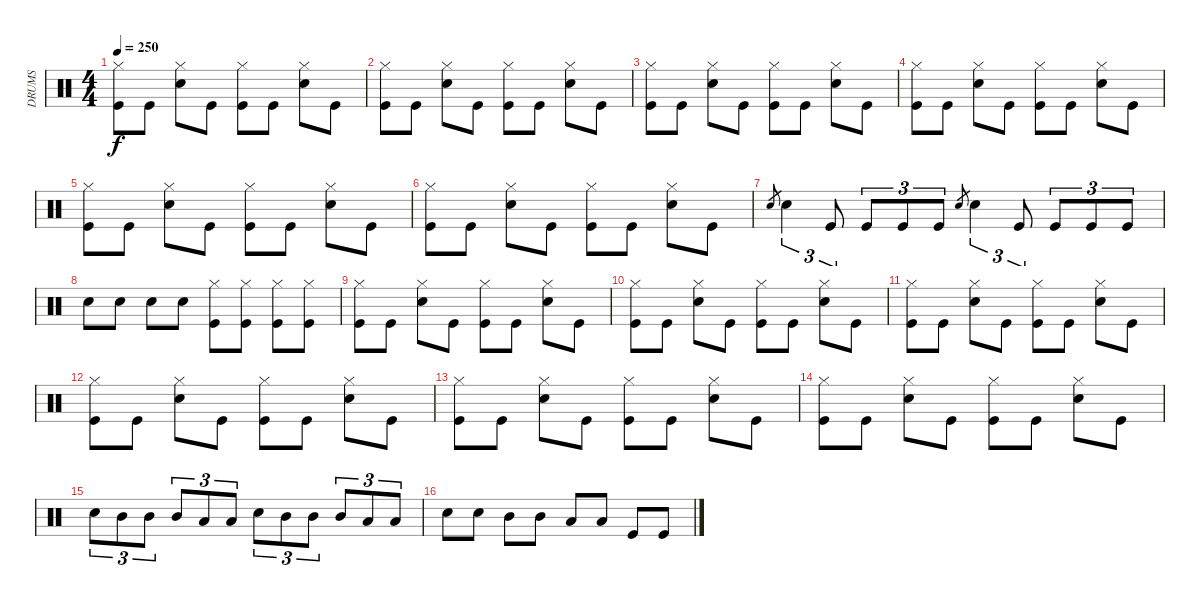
\track ("DRUMS" "DRUMS") {instrument percussion}
\staff {score}
\articulation defaults
\ts (4 4)
\tempo 250
\clef neutral
\ks aminor
("Hi-Hat (closed)" "Kick (hit)").8{dy f} "Kick (hit)".8 ("Hi-Hat (closed)" "Snare (hit) 2").8 "Kick (hit)".8 ("Hi-Hat (closed)" "Kick (hit)").8 "Kick (hit)".8 ("Hi-Hat (closed)" "Snare (hit) 2").8 "Kick (hit)".8 |
("Hi-Hat (closed)" "Kick (hit)").8 "Kick (hit)".8 ("Hi-Hat (closed)" "Snare (hit) 2").8 "Kick (hit)".8 ("Hi-Hat (closed)" "Kick (hit)").8 "Kick (hit)".8 ("Hi-Hat (closed)" "Snare (hit) 2").8 "Kick (hit)".8 |
("Hi-Hat (closed)" "Kick (hit)").8 "Kick (hit)".8 ("Hi-Hat (closed)" "Snare (hit) 2").8 "Kick (hit)".8 ("Hi-Hat (closed)" "Kick (hit)").8 "Kick (hit)".8 ("Hi-Hat (closed)" "Snare (hit) 2").8 "Kick (hit)".8 |
("Hi-Hat (closed)" "Kick (hit)").8 "Kick (hit)".8 ("Hi-Hat (closed)" "Snare (hit) 2").8 "Kick (hit)".8 ("Hi-Hat (closed)" "Kick (hit)").8 "Kick (hit)".8 ("Hi-Hat (closed)" "Snare (hit) 2").8 "Kick (hit)".8 |
("Hi-Hat (closed)" "Kick (hit)").8 "Kick (hit)".8 ("Hi-Hat (closed)" "Snare (hit) 2").8 "Kick (hit)".8 ("Hi-Hat (closed)" "Kick (hit)").8 "Kick (hit)".8 ("Hi-Hat (closed)" "Snare (hit) 2").8 "Kick (hit)".8 |
("Hi-Hat (closed)" "Kick (hit)").8 "Kick (hit)".8 ("Hi-Hat (closed)" "Snare (hit) 2").8 "Kick (hit)".8 ("Hi-Hat (closed)" "Kick (hit)").8 "Kick (hit)".8 ("Hi-Hat (closed)" "Snare (hit) 2").8 "Kick (hit)".8 |
"Snare (hit) 2".8{gr} "Snare (hit) 2".4{tu (3 2)} "Kick (hit)".8{tu (3 2)} "Kick (hit)".8{tu (3 2)} "Kick (hit)".8{tu (3 2)} "Kick (hit)".8{tu (3 2)} "Snare (hit) 2".8{gr} "Snare (hit) 2".4{tu (3 2)} "Kick (hit)".8{tu (3 2)} "Kick (hit)".8{tu (3 2)} "Kick (hit)".8{tu (3 2)} "Kick (hit)".8{tu (3 2)} |
"Snare (hit) 2".8 "Snare (hit) 2".8 "Snare (hit) 2".8 "Snare (hit) 2".8 ("Hi-Hat (closed)" "Kick (hit)").8 ("Hi-Hat (closed)" "Kick (hit)").8 ("Hi-Hat (closed)" "Kick (hit)").8 ("Hi-Hat (closed)" "Kick (hit)").8 |
("Hi-Hat (closed)" "Kick (hit)").8 "Kick (hit)".8 ("Hi-Hat (closed)" "Snare (hit) 2").8 "Kick (hit)".8 ("Hi-Hat (closed)" "Kick (hit)").8 "Kick (hit)".8 ("Hi-Hat (closed)" "Snare (hit) 2").8 "Kick (hit)".8 |
("Hi-Hat (closed)" "Kick (hit)").8 "Kick (hit)".8 ("Hi-Hat (closed)" "Snare (hit) 2").8 "Kick (hit)".8 ("Hi-Hat (closed)" "Kick (hit)").8 "Kick (hit)".8 ("Hi-Hat (closed)" "Snare (hit) 2").8 "Kick (hit)".8 |
("Hi-Hat (closed)" "Kick (hit)").8 "Kick (hit)".8 ("Hi-Hat (closed)" "Snare (hit) 2").8 "Kick (hit)".8 ("Hi-Hat (closed)" "Kick (hit)").8 "Kick (hit)".8 ("Hi-Hat (closed)" "Snare (hit) 2").8 "Kick (hit)".8 |
("Hi-Hat (closed)" "Kick (hit)").8 "Kick (hit)".8 ("Hi-Hat (closed)" "Snare (hit) 2").8 "Kick (hit)".8 ("Hi-Hat (closed)" "Kick (hit)").8 "Kick (hit)".8 ("Hi-Hat (closed)" "Snare (hit) 2").8 "Kick (hit)".8 |
("Hi-Hat (closed)" "Kick (hit)").8 "Kick (hit)".8 ("Hi-Hat (closed)" "Snare (hit) 2").8 "Kick (hit)".8 ("Hi-Hat (closed)" "Kick (hit)").8 "Kick (hit)".8 ("Hi-Hat (closed)" "Snare (hit) 2").8 "Kick (hit)".8 |
("Hi-Hat (closed)" "Kick (hit)").8 "Kick (hit)".8 ("Hi-Hat (closed)" "Snare (hit) 2").8 "Kick (hit)".8 ("Hi-Hat (closed)" "Kick (hit)").8 "Kick (hit)".8 ("Hi-Hat (closed)" "Snare (hit) 2").8 "Kick (hit)".8 |
"Snare (hit) 2".8{tu (3 2)} "Mid Tom (hit)".8{tu (3 2)} "Mid Tom (hit)".8{tu (3 2)} "Mid Tom (hit)".8{tu (3 2)} "Low Tom (hit)".8{tu (3 2)} "Low Tom (hit)".8{tu (3 2)} "Snare (hit) 2".8{tu (3 2)} "Mid Tom (hit)".8{tu (3 2)} "Mid Tom (hit)".8{tu (3 2)} "Mid Tom (hit)".8{tu (3 2)} "Low Tom (hit)".8{tu (3 2)} "Low Tom (hit)".8{tu (3 2)} |
"Snare (hit) 2".8 "Snare (hit) 2".8 "Mid Tom (hit)".8 "Mid Tom (hit)".8 "Low Tom (hit)".8 "Low Tom (hit)".8 "Kick (hit)".8 "Kick (hit)".8
